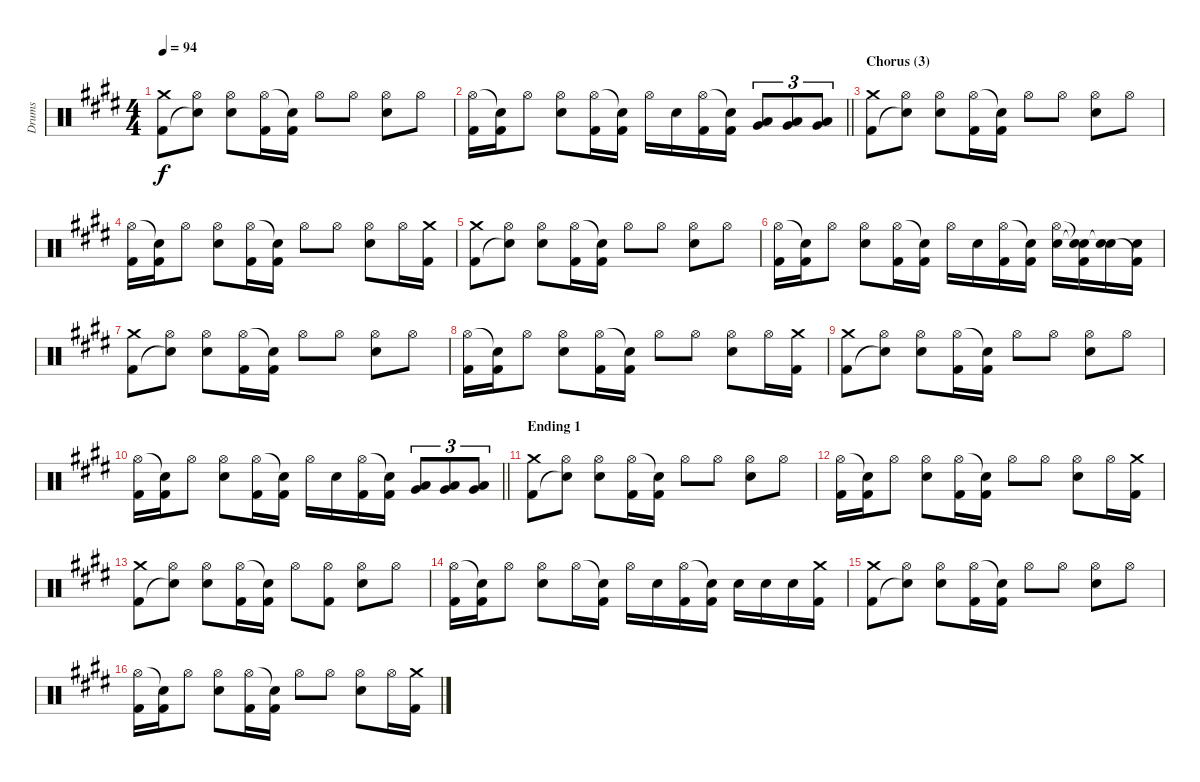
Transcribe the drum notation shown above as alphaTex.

\track ("Drums" "Drums") {instrument percussion}
\staff {score}
\articulation defaults
\ts (4 4)
\tempo 94
\clef neutral
\ks c#minor
("Crash medium (hit)" "Kick (hit) 2").8{dy f} ("Hi-Hat (open)" "Snare (hit)"{t}).8 ("Hi-Hat (open)" "Electric Snare (hit)").8 ("Hi-Hat (open)" "Kick (hit) 2").16 ("Snare (hit)"{t} "Kick (hit) 2").16 "Hi-Hat (open)".8 "Hi-Hat (open)".8 ("Hi-Hat (open)" "Electric Snare (hit)").8 "Hi-Hat (open)".8 |
\barLineRight lightlight
("Hi-Hat (open)" "Kick (hit) 2").16 ("Snare (hit)"{t} "Kick (hit) 2").16 "Hi-Hat (open)".8 ("Hi-Hat (open)" "Electric Snare (hit)").8 ("Hi-Hat (open)" "Kick (hit) 2").16 ("Snare (hit)"{t} "Kick (hit) 2").16 "Hi-Hat (open)".16 "Electric Snare (hit)".16 ("Hi-Hat (open)" "Kick (hit) 2").16 ("Snare (hit)"{t} "Kick (hit) 2").16 ("Very Low Tom (hit)" "Low Floor Tom (hit)").8{tu (3 2)} ("Very Low Tom (hit)" "Low Floor Tom (hit)").8{tu (3 2)} ("Very Low Tom (hit)" "Low Floor Tom (hit)").8{tu (3 2)} |
\section ("" "Chorus (3)")
("Crash medium (hit)" "Kick (hit) 2").8 ("Hi-Hat (open)" "Snare (hit)"{t}).8 ("Hi-Hat (open)" "Electric Snare (hit)").8 ("Hi-Hat (open)" "Kick (hit) 2").16 ("Snare (hit)"{t} "Kick (hit) 2").16 "Hi-Hat (open)".8 "Hi-Hat (open)".8 ("Hi-Hat (open)" "Electric Snare (hit)").8 "Hi-Hat (open)".8 |
("Hi-Hat (open)" "Kick (hit) 2").16 ("Snare (hit)"{t} "Kick (hit) 2").16 "Hi-Hat (open)".8 ("Hi-Hat (open)" "Electric Snare (hit)").8 ("Hi-Hat (open)" "Kick (hit) 2").16 ("Snare (hit)"{t} "Kick (hit) 2").16 "Hi-Hat (open)".8 "Hi-Hat (open)".8 ("Hi-Hat (open)" "Electric Snare (hit)").8 "Hi-Hat (open)".16 ("Crash medium (hit)" "Kick (hit) 2").16 |
("Crash medium (hit)" "Kick (hit) 2").8 ("Hi-Hat (open)" "Snare (hit)"{t}).8 ("Hi-Hat (open)" "Electric Snare (hit)").8 ("Hi-Hat (open)" "Kick (hit) 2").16 ("Snare (hit)"{t} "Kick (hit) 2").16 "Hi-Hat (open)".8 "Hi-Hat (open)".8 ("Hi-Hat (open)" "Electric Snare (hit)").8 "Hi-Hat (open)".8 |
("Hi-Hat (open)" "Kick (hit) 2").16 ("Snare (hit)"{t} "Kick (hit) 2").16 "Hi-Hat (open)".8 ("Hi-Hat (open)" "Electric Snare (hit)").8 ("Hi-Hat (open)" "Kick (hit) 2").16 ("Snare (hit)"{t} "Kick (hit) 2").16 "Hi-Hat (open)".16 "Electric Snare (hit)".16 ("Hi-Hat (open)" "Kick (hit) 2").16 ("Snare (hit)"{t} "Kick (hit) 2").16 ("Hi-Hat (open)" "Electric Snare (hit)").16 ("Snare (hit)"{t} "Electric Snare (hit)"{t} "Kick (hit) 2").16 ("Electric Snare (hit)" "Snare (hit)"{t}).16 ("Electric Snare (hit)" "Kick (hit) 2"{t}).16 |
("Crash medium (hit)" "Kick (hit) 2").8 ("Hi-Hat (open)" "Snare (hit)"{t}).8 ("Hi-Hat (open)" "Electric Snare (hit)").8 ("Hi-Hat (open)" "Kick (hit) 2").16 ("Snare (hit)"{t} "Kick (hit) 2").16 "Hi-Hat (open)".8 "Hi-Hat (open)".8 ("Hi-Hat (open)" "Electric Snare (hit)").8 "Hi-Hat (open)".8 |
("Hi-Hat (open)" "Kick (hit) 2").16 ("Snare (hit)"{t} "Kick (hit) 2").16 "Hi-Hat (open)".8 ("Hi-Hat (open)" "Electric Snare (hit)").8 ("Hi-Hat (open)" "Kick (hit) 2").16 ("Snare (hit)"{t} "Kick (hit) 2").16 "Hi-Hat (open)".8 "Hi-Hat (open)".8 ("Hi-Hat (open)" "Electric Snare (hit)").8 "Hi-Hat (open)".16 ("Crash medium (hit)" "Kick (hit) 2").16 |
("Crash medium (hit)" "Kick (hit) 2").8 ("Hi-Hat (open)" "Snare (hit)"{t}).8 ("Hi-Hat (open)" "Electric Snare (hit)").8 ("Hi-Hat (open)" "Kick (hit) 2").16 ("Snare (hit)"{t} "Kick (hit) 2").16 "Hi-Hat (open)".8 "Hi-Hat (open)".8 ("Hi-Hat (open)" "Electric Snare (hit)").8 "Hi-Hat (open)".8 |
\barLineRight lightlight
("Hi-Hat (open)" "Kick (hit) 2").16 ("Snare (hit)"{t} "Kick (hit) 2").16 "Hi-Hat (open)".8 ("Hi-Hat (open)" "Electric Snare (hit)").8 ("Hi-Hat (open)" "Kick (hit) 2").16 ("Snare (hit)"{t} "Kick (hit) 2").16 "Hi-Hat (open)".16 "Electric Snare (hit)".16 ("Hi-Hat (open)" "Kick (hit) 2").16 ("Snare (hit)"{t} "Kick (hit) 2").16 ("Very Low Tom (hit)" "Low Floor Tom (hit)").8{tu (3 2)} ("Very Low Tom (hit)" "Low Floor Tom (hit)").8{tu (3 2)} ("Very Low Tom (hit)" "Low Floor Tom (hit)").8{tu (3 2)} |
\section ("" "Ending 1")
("Crash medium (hit)" "Kick (hit) 2").8 ("Hi-Hat (open)" "Snare (hit)"{t}).8 ("Hi-Hat (open)" "Electric Snare (hit)").8 ("Hi-Hat (open)" "Kick (hit) 2").16 ("Snare (hit)"{t} "Kick (hit) 2").16 "Hi-Hat (open)".8 "Hi-Hat (open)".8 ("Hi-Hat (open)" "Electric Snare (hit)").8 "Hi-Hat (open)".8 |
("Hi-Hat (open)" "Kick (hit) 2").16 ("Snare (hit)"{t} "Kick (hit) 2").16 "Hi-Hat (open)".8 ("Hi-Hat (open)" "Electric Snare (hit)").8 ("Hi-Hat (open)" "Kick (hit) 2").16 ("Snare (hit)"{t} "Kick (hit) 2").16 "Hi-Hat (open)".8 "Hi-Hat (open)".8 ("Hi-Hat (open)" "Electric Snare (hit)").8 "Hi-Hat (open)".16 ("Crash medium (hit)" "Kick (hit) 2").16 |
("Crash medium (hit)" "Kick (hit) 2").8 ("Hi-Hat (open)" "Snare (hit)"{t}).8 ("Hi-Hat (open)" "Electric Snare (hit)").8 ("Hi-Hat (open)" "Kick (hit) 2").16 ("Snare (hit)"{t} "Kick (hit) 2").16 "Hi-Hat (open)".8 ("Hi-Hat (open)" "Kick (hit) 2").8 ("Hi-Hat (open)" "Electric Snare (hit)").8 "Hi-Hat (open)".8 |
("Hi-Hat (open)" "Kick (hit) 2").16 ("Snare (hit)"{t} "Kick (hit) 2").16 "Hi-Hat (open)".8 ("Hi-Hat (open)" "Electric Snare (hit)").8 "Hi-Hat (open)".16 ("Snare (hit)"{t} "Kick (hit) 2").16 "Hi-Hat (open)".16 "Electric Snare (hit)".16 ("Hi-Hat (open)" "Kick (hit) 2").16 ("Snare (hit)"{t} "Kick (hit) 2").16 "Electric Snare (hit)".16 "Electric Snare (hit)".16 "Electric Snare (hit)".16 ("Crash medium (hit)" "Kick (hit) 2").16 |
("Crash medium (hit)" "Kick (hit) 2").8 ("Hi-Hat (open)" "Snare (hit)"{t}).8 ("Hi-Hat (open)" "Electric Snare (hit)").8 ("Hi-Hat (open)" "Kick (hit) 2").16 ("Snare (hit)"{t} "Kick (hit) 2").16 "Hi-Hat (open)".8 "Hi-Hat (open)".8 ("Hi-Hat (open)" "Electric Snare (hit)").8 "Hi-Hat (open)".8 |
("Hi-Hat (open)" "Kick (hit) 2").16 ("Snare (hit)"{t} "Kick (hit) 2").16 "Hi-Hat (open)".8 ("Hi-Hat (open)" "Electric Snare (hit)").8 ("Hi-Hat (open)" "Kick (hit) 2").16 ("Snare (hit)"{t} "Kick (hit) 2").16 "Hi-Hat (open)".8 "Hi-Hat (open)".8 ("Hi-Hat (open)" "Electric Snare (hit)").8 "Hi-Hat (open)".16 ("Crash medium (hit)" "Kick (hit) 2").16
